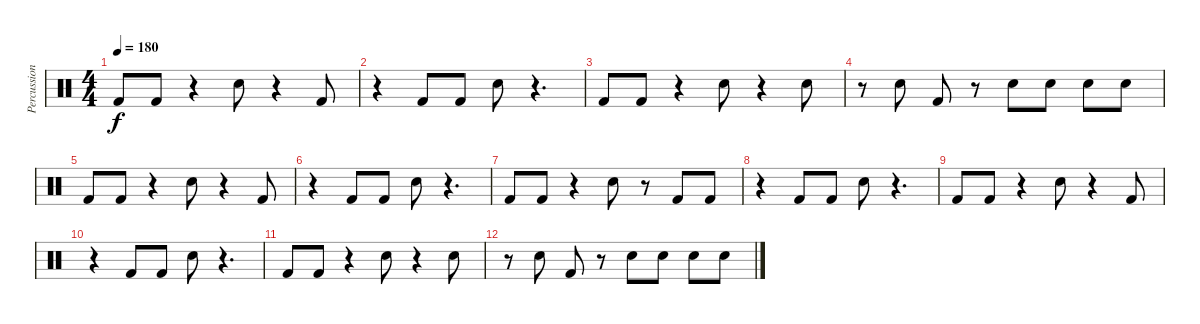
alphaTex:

\track ("Percussions" "Percussion") {instrument percussion}
\staff {score}
\articulation defaults
\ts (4 4)
\tempo 180
\clef neutral
\ks c "Kick (hit) 2".8{dy f} "Kick (hit) 2".8
r.4 "Snare (hit) 2".8 r.4 "Kick (hit) 2".8 |
r.4 "Kick (hit) 2".8 "Kick (hit) 2".8 "Snare (hit) 2".8 r.4{d} |
"Kick (hit) 2".8 "Kick (hit) 2".8 r.4 "Snare (hit) 2".8 r.4 "Snare (hit) 2".8 |
r.8 "Snare (hit) 2".8 "Kick (hit) 2".8 r.8 "Snare (hit) 2".8 "Snare (hit) 2".8 "Snare (hit) 2".8 "Snare (hit) 2".8 |
"Kick (hit) 2".8 "Kick (hit) 2".8 r.4 "Snare (hit) 2".8 r.4 "Kick (hit) 2".8 |
r.4 "Kick (hit) 2".8 "Kick (hit) 2".8 "Snare (hit) 2".8 r.4{d} |
"Kick (hit) 2".8 "Kick (hit) 2".8 r.4 "Snare (hit) 2".8 r.8 "Kick (hit) 2".8 "Kick (hit) 2".8 |
r.4 "Kick (hit) 2".8 "Kick (hit) 2".8 "Snare (hit) 2".8 r.4{d} |
"Kick (hit) 2".8 "Kick (hit) 2".8 r.4 "Snare (hit) 2".8 r.4 "Kick (hit) 2".8 |
r.4 "Kick (hit) 2".8 "Kick (hit) 2".8 "Snare (hit) 2".8 r.4{d} |
"Kick (hit) 2".8 "Kick (hit) 2".8 r.4 "Snare (hit) 2".8 r.4 "Snare (hit) 2".8 |
r.8 "Snare (hit) 2".8 "Kick (hit) 2".8 r.8 "Snare (hit) 2".8 "Snare (hit) 2".8 "Snare (hit) 2".8 "Snare (hit) 2".8
